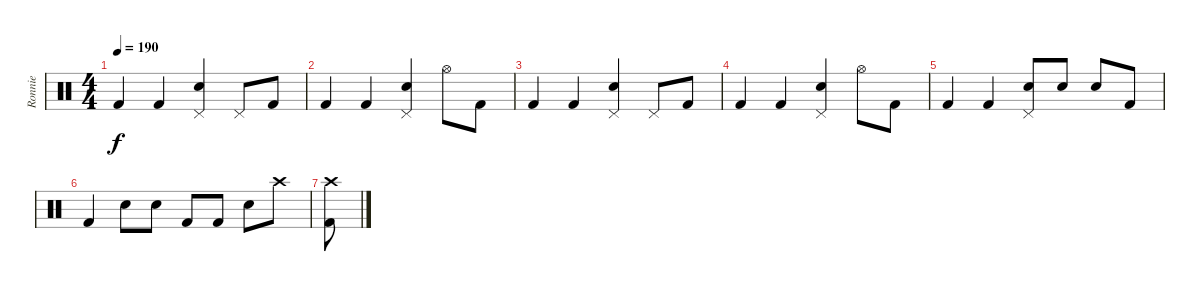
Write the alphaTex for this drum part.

\track ("Ronnie" "Ronnie") {instrument percussion}
\staff {score}
\articulation defaults
\ts (4 4)
\tempo 190
\clef neutral
\ks c "Kick (hit) 2".4{dy f} "Kick (hit) 2".4
("Electric Snare (hit)" "Pedal Hi-Hat (hit)").4 "Pedal Hi-Hat (hit)".8 "Kick (hit) 2".8 |
"Kick (hit) 2".4 "Kick (hit) 2".4 ("Electric Snare (hit)" "Pedal Hi-Hat (hit)").4 "Hi-Hat (open)".8 "Kick (hit) 2".8 |
"Kick (hit) 2".4 "Kick (hit) 2".4 ("Electric Snare (hit)" "Pedal Hi-Hat (hit)").4 "Pedal Hi-Hat (hit)".8 "Kick (hit) 2".8 |
"Kick (hit) 2".4 "Kick (hit) 2".4 ("Electric Snare (hit)" "Pedal Hi-Hat (hit)").4 "Hi-Hat (open)".8 "Kick (hit) 2".8 |
"Kick (hit) 2".4 "Kick (hit) 2".4 ("Pedal Hi-Hat (hit)" "Electric Snare (hit)").8 "Electric Snare (hit)".8 "Electric Snare (hit)".8 "Kick (hit) 2".8 |
"Kick (hit) 2".4 "Electric Snare (hit)".8 "Electric Snare (hit)".8 "Kick (hit) 2".8 "Kick (hit) 2".8 "Electric Snare (hit)".8 "Crash high (hit)".8 |
("Kick (hit) 2" "Crash high (hit)").8
